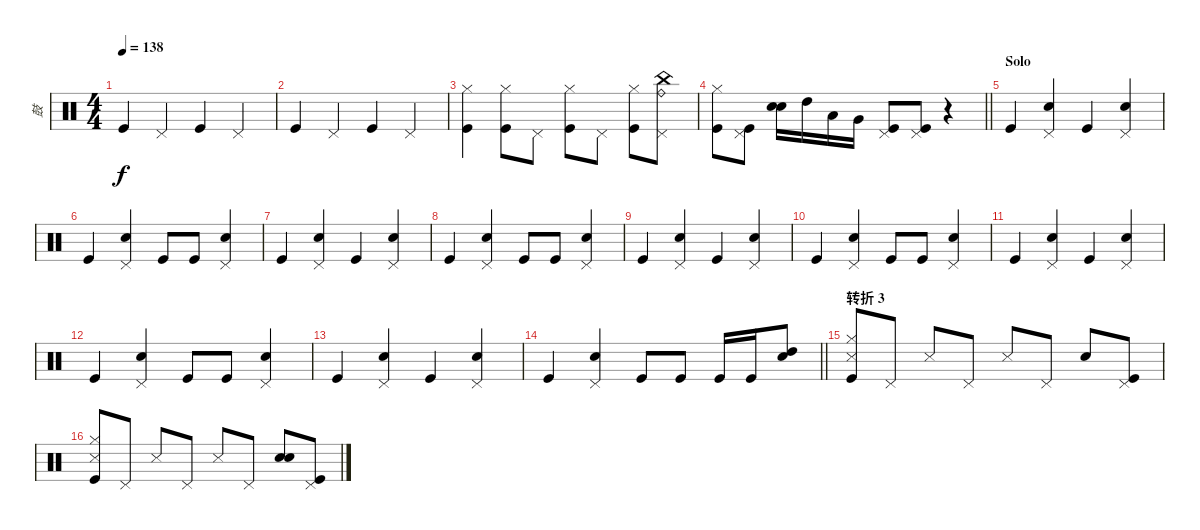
\track ("鼓" "鼓") {instrument percussion}
\staff {score}
\articulation defaults
\ts (4 4)
\tempo 138
\clef neutral
\ks c "Kick (hit)".4{dy f} "Pedal Hi-Hat (hit)".4 "Kick (hit)".4 "Pedal Hi-Hat (hit)".4
|
"Kick (hit)".4 "Pedal Hi-Hat (hit)".4 "Kick (hit)".4 "Pedal Hi-Hat (hit)".4 |
("Kick (hit)" "Hi-Hat (closed)").4 ("Kick (hit)" "Hi-Hat (closed)").8 "Pedal Hi-Hat (hit)".8 ("Kick (hit)" "Hi-Hat (closed)").8 "Pedal Hi-Hat (hit)".8 ("Kick (hit)" "Hi-Hat (closed)").8 ("China (hit)" "Ride (bell)" "Pedal Hi-Hat (hit)").8 |
\barLineRight lightlight
("Kick (hit)" "Hi-Hat (closed)").8 ("Kick (hit)" "Pedal Hi-Hat (hit)").8 ("Hand Clap (hit)" "Electric Snare (hit)").16 "High Tom (hit)".16 "Low Tom (hit)".16 "Very Low Tom (hit)".16 ("Kick (hit)" "Pedal Hi-Hat (hit)").8 ("Kick (hit)" "Pedal Hi-Hat (hit)").8 r.4 |
\section ("" "Solo")
"Kick (hit)".4 ("Snare (hit) 2" "Pedal Hi-Hat (hit)").4 "Kick (hit)".4 ("Snare (hit) 2" "Pedal Hi-Hat (hit)").4 |
"Kick (hit)".4 ("Snare (hit) 2" "Pedal Hi-Hat (hit)").4 "Kick (hit)".8 "Kick (hit)".8 ("Snare (hit) 2" "Pedal Hi-Hat (hit)").4 |
"Kick (hit)".4 ("Snare (hit) 2" "Pedal Hi-Hat (hit)").4 "Kick (hit)".4 ("Snare (hit) 2" "Pedal Hi-Hat (hit)").4 |
"Kick (hit)".4 ("Snare (hit) 2" "Pedal Hi-Hat (hit)").4 "Kick (hit)".8 "Kick (hit)".8 ("Snare (hit) 2" "Pedal Hi-Hat (hit)").4 |
"Kick (hit)".4 ("Snare (hit) 2" "Pedal Hi-Hat (hit)").4 "Kick (hit)".4 ("Snare (hit) 2" "Pedal Hi-Hat (hit)").4 |
"Kick (hit)".4 ("Snare (hit) 2" "Pedal Hi-Hat (hit)").4 "Kick (hit)".8 "Kick (hit)".8 ("Snare (hit) 2" "Pedal Hi-Hat (hit)").4 |
"Kick (hit)".4 ("Snare (hit) 2" "Pedal Hi-Hat (hit)").4 "Kick (hit)".4 ("Snare (hit) 2" "Pedal Hi-Hat (hit)").4 |
"Kick (hit)".4 ("Snare (hit) 2" "Pedal Hi-Hat (hit)").4 "Kick (hit)".8 "Kick (hit)".8 ("Snare (hit) 2" "Pedal Hi-Hat (hit)").4 |
"Kick (hit)".4 ("Snare (hit) 2" "Pedal Hi-Hat (hit)").4 "Kick (hit)".4 ("Snare (hit) 2" "Pedal Hi-Hat (hit)").4 |
\barLineRight lightlight "Kick (hit)".4
("Snare (hit) 2" "Pedal Hi-Hat (hit)").4 "Kick (hit)".8 "Kick (hit)".8 "Kick (hit)".16 "Kick (hit)".16 ("Snare (hit) 2" "High Tom (hit)").8 |
\section ("" "转折 3")
("Snare (side stick) 3" "Kick (hit)" "Hi-Hat (closed)").8 "Pedal Hi-Hat (hit)".8 "Snare (side stick) 3".8 "Pedal Hi-Hat (hit)".8 "Snare (side stick) 3".8 "Pedal Hi-Hat (hit)".8 "Hand Clap (hit)".8 ("Kick (hit)" "Pedal Hi-Hat (hit)").8 |
("Snare (side stick) 3" "Kick (hit)" "Hi-Hat (closed)").8 "Pedal Hi-Hat (hit)".8 "Snare (side stick) 3".8 "Pedal Hi-Hat (hit)".8 "Snare (side stick) 3".8 "Pedal Hi-Hat (hit)".8 ("Hand Clap (hit)" "Snare (hit) 2").8 ("Kick (hit)" "Pedal Hi-Hat (hit)").8
